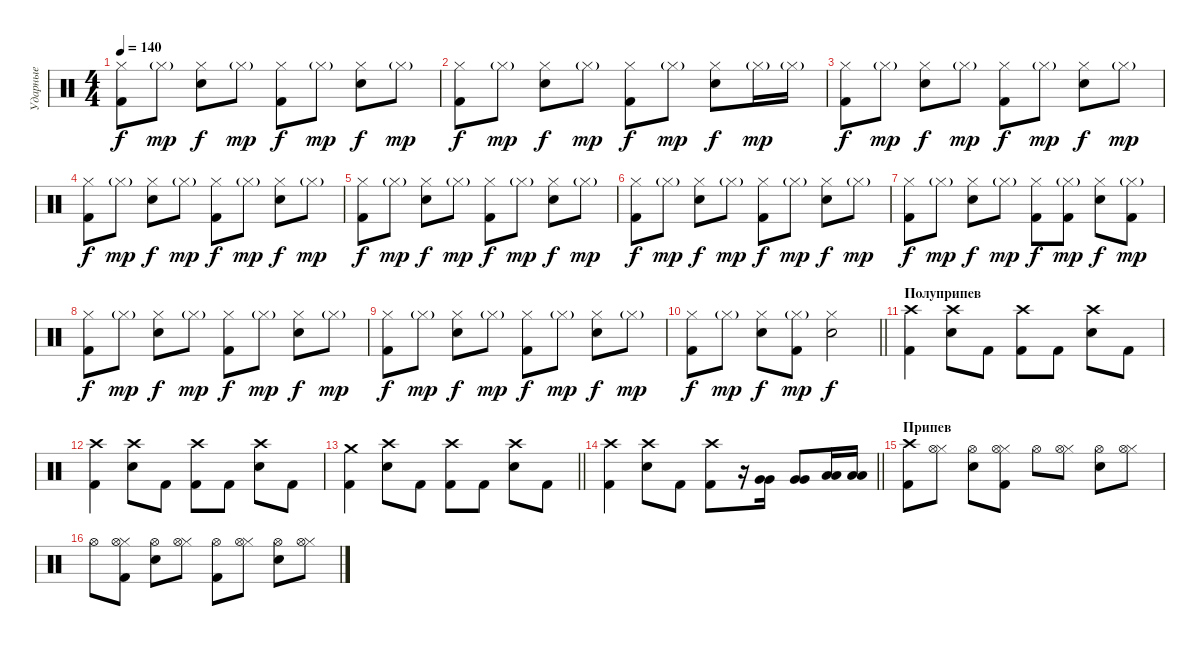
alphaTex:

\track ("Ударные" "Ударные") {instrument percussion}
\staff {score}
\articulation defaults
\ts (4 4)
\tempo 140
\clef neutral
\ks c
("Hi-Hat (closed)" "Kick (hit) 2").8{dy f} "Hi-Hat (closed)"{g}.8{dy mp} ("Hi-Hat (closed)" "Snare (hit) 2").8{dy f} "Hi-Hat (closed)"{g}.8{dy mp} ("Hi-Hat (closed)" "Kick (hit) 2").8{dy f} "Hi-Hat (closed)"{g}.8{dy mp} ("Hi-Hat (closed)" "Snare (hit) 2").8{dy f} "Hi-Hat (closed)"{g}.8{dy mp} |
("Hi-Hat (closed)" "Kick (hit) 2").8{dy f} "Hi-Hat (closed)"{g}.8{dy mp} ("Hi-Hat (closed)" "Snare (hit) 2").8{dy f} "Hi-Hat (closed)"{g}.8{dy mp} ("Hi-Hat (closed)" "Kick (hit) 2").8{dy f} "Hi-Hat (closed)"{g}.8{dy mp} ("Hi-Hat (closed)" "Snare (hit) 2").8{dy f} "Hi-Hat (closed)"{g}.16{dy mp} "Hi-Hat (closed)"{g}.16 |
("Hi-Hat (closed)" "Kick (hit) 2").8{dy f} "Hi-Hat (closed)"{g}.8{dy mp} ("Hi-Hat (closed)" "Snare (hit) 2").8{dy f} "Hi-Hat (closed)"{g}.8{dy mp} ("Hi-Hat (closed)" "Kick (hit) 2").8{dy f} "Hi-Hat (closed)"{g}.8{dy mp} ("Hi-Hat (closed)" "Snare (hit) 2").8{dy f} "Hi-Hat (closed)"{g}.8{dy mp} |
("Hi-Hat (closed)" "Kick (hit) 2").8{dy f} "Hi-Hat (closed)"{g}.8{dy mp} ("Hi-Hat (closed)" "Snare (hit) 2").8{dy f} "Hi-Hat (closed)"{g}.8{dy mp} ("Hi-Hat (closed)" "Kick (hit) 2").8{dy f} "Hi-Hat (closed)"{g}.8{dy mp} ("Hi-Hat (closed)" "Snare (hit) 2").8{dy f} "Hi-Hat (closed)"{g}.8{dy mp} |
("Hi-Hat (closed)" "Kick (hit) 2").8{dy f} "Hi-Hat (closed)"{g}.8{dy mp} ("Hi-Hat (closed)" "Snare (hit) 2").8{dy f} "Hi-Hat (closed)"{g}.8{dy mp} ("Hi-Hat (closed)" "Kick (hit) 2").8{dy f} "Hi-Hat (closed)"{g}.8{dy mp} ("Hi-Hat (closed)" "Snare (hit) 2").8{dy f} "Hi-Hat (closed)"{g}.8{dy mp} |
("Hi-Hat (closed)" "Kick (hit) 2").8{dy f} "Hi-Hat (closed)"{g}.8{dy mp} ("Hi-Hat (closed)" "Snare (hit) 2").8{dy f} "Hi-Hat (closed)"{g}.8{dy mp} ("Hi-Hat (closed)" "Kick (hit) 2").8{dy f} "Hi-Hat (closed)"{g}.8{dy mp} ("Hi-Hat (closed)" "Snare (hit) 2").8{dy f} "Hi-Hat (closed)"{g}.8{dy mp} |
("Hi-Hat (closed)" "Kick (hit) 2").8{dy f} "Hi-Hat (closed)"{g}.8{dy mp} ("Hi-Hat (closed)" "Snare (hit) 2").8{dy f} "Hi-Hat (closed)"{g}.8{dy mp} ("Hi-Hat (closed)" "Kick (hit) 2").8{dy f} ("Hi-Hat (closed)"{g} "Kick (hit) 2").8{dy mp} ("Hi-Hat (closed)" "Snare (hit) 2").8{dy f} ("Hi-Hat (closed)"{g} "Kick (hit) 2").8{dy mp} |
("Hi-Hat (closed)" "Kick (hit) 2").8{dy f} "Hi-Hat (closed)"{g}.8{dy mp} ("Hi-Hat (closed)" "Snare (hit) 2").8{dy f} "Hi-Hat (closed)"{g}.8{dy mp} ("Hi-Hat (closed)" "Kick (hit) 2").8{dy f} "Hi-Hat (closed)"{g}.8{dy mp} ("Hi-Hat (closed)" "Snare (hit) 2").8{dy f} "Hi-Hat (closed)"{g}.8{dy mp} |
("Hi-Hat (closed)" "Kick (hit) 2").8{dy f} "Hi-Hat (closed)"{g}.8{dy mp} ("Hi-Hat (closed)" "Snare (hit) 2").8{dy f} "Hi-Hat (closed)"{g}.8{dy mp} ("Hi-Hat (closed)" "Kick (hit) 2").8{dy f} "Hi-Hat (closed)"{g}.8{dy mp} ("Hi-Hat (closed)" "Snare (hit) 2").8{dy f} "Hi-Hat (closed)"{g}.8{dy mp} |
\barLineRight lightlight
("Hi-Hat (closed)" "Kick (hit) 2").8{dy f} "Hi-Hat (closed)"{g}.8{dy mp} ("Hi-Hat (closed)" "Snare (hit) 2").8{dy f} ("Hi-Hat (closed)"{g} "Kick (hit) 2").8{dy mp} ("Hi-Hat (closed)" "Snare (hit) 2").2{dy f} |
\section ("" "Полуприпев")
("Crash high (hit)" "Kick (hit) 2").4 ("Crash high (hit)" "Snare (hit) 2").8 "Kick (hit) 2".8 ("Crash high (hit)" "Kick (hit) 2").8 "Kick (hit) 2".8 ("Crash high (hit)" "Snare (hit) 2").8 "Kick (hit) 2".8 |
("Crash high (hit)" "Kick (hit) 2").4 ("Crash high (hit)" "Snare (hit) 2").8 "Kick (hit) 2".8 ("Crash high (hit)" "Kick (hit) 2").8 "Kick (hit) 2".8 ("Crash high (hit)" "Snare (hit) 2").8 "Kick (hit) 2".8 |
\barLineRight lightlight
("Crash medium (hit)" "Kick (hit) 2").4 ("Crash high (hit)" "Snare (hit) 2").8 "Kick (hit) 2".8 ("Crash high (hit)" "Kick (hit) 2").8 "Kick (hit) 2".8 ("Crash high (hit)" "Snare (hit) 2").8 "Kick (hit) 2".8 |
\barLineRight lightlight
("Crash high (hit)" "Kick (hit) 2").4 ("Crash high (hit)" "Snare (hit) 2").8 "Kick (hit) 2".8 ("Crash high (hit)" "Kick (hit) 2").8 r.16 ("Very Low Tom (hit)" "Very Low Tom (hit)").16 ("Very Low Tom (hit)" "Very Low Tom (hit)").8 ("Low Tom (hit)" "Low Tom (hit)").16 ("Low Tom (hit)" "Low Tom (hit)").16 |
\section ("" "Припев")
("Crash high (hit)" "Kick (hit) 2").8 ("Hi-Hat (closed)" "Hi-Hat (open)").8 ("Hi-Hat (open)" "Snare (hit) 2").8 ("Hi-Hat (closed)" "Hi-Hat (open)" "Kick (hit) 2").8 "Hi-Hat (open)".8 ("Hi-Hat (closed)" "Hi-Hat (open)").8 ("Hi-Hat (open)" "Snare (hit) 2").8 ("Hi-Hat (closed)" "Hi-Hat (open)").8 |
"Hi-Hat (open)".8 ("Hi-Hat (closed)" "Hi-Hat (open)" "Kick (hit) 2").8 ("Hi-Hat (open)" "Snare (hit) 2").8 ("Hi-Hat (closed)" "Hi-Hat (open)").8 ("Hi-Hat (open)" "Kick (hit) 2").8 ("Hi-Hat (closed)" "Hi-Hat (open)").8 ("Hi-Hat (open)" "Snare (hit) 2").8 ("Hi-Hat (closed)" "Hi-Hat (open)").8
